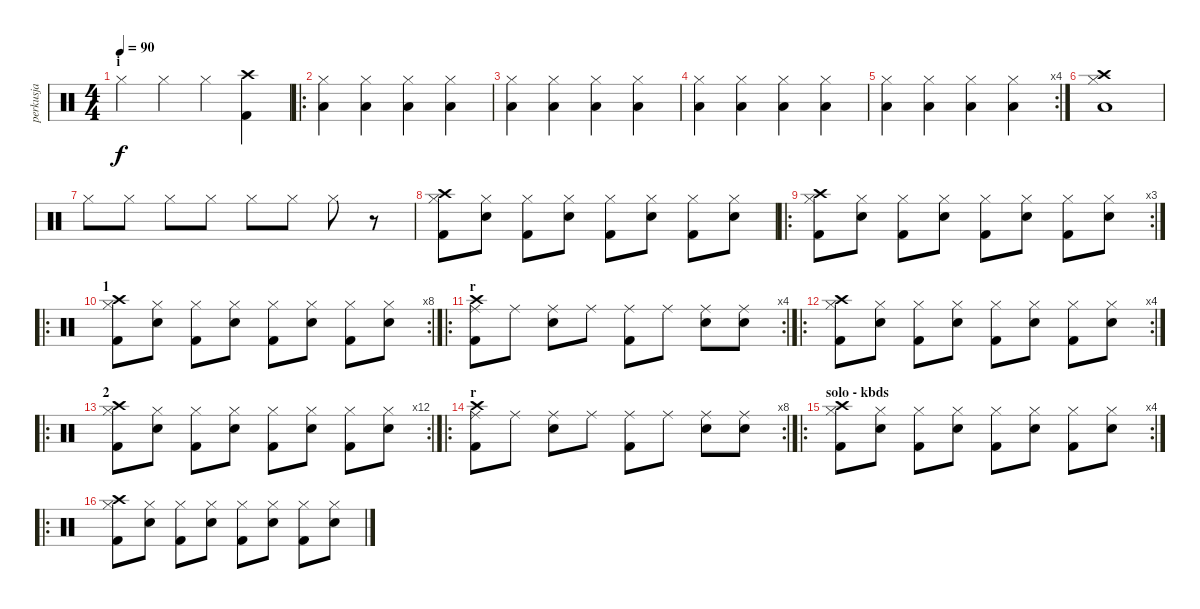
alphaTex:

\track ("perkusja" "perkusja") {instrument percussion}
\staff {score}
\articulation defaults
\ts (4 4)
\section ("" "i")
\tempo 90
\clef neutral
\ks c "Hi-Hat (closed)".4{dy f} "Hi-Hat (closed)".4 "Hi-Hat (closed)".4
("Crash high (hit)" "Kick (hit) 2").4 |
\ro
("Hi-Hat (closed)" "Low Tom (hit)").4 ("Hi-Hat (closed)" "Low Tom (hit)").4 ("Hi-Hat (closed)" "Low Tom (hit)").4 ("Hi-Hat (closed)" "Low Tom (hit)").4 |
("Hi-Hat (closed)" "Low Tom (hit)").4 ("Hi-Hat (closed)" "Low Tom (hit)").4 ("Hi-Hat (closed)" "Low Tom (hit)").4 ("Hi-Hat (closed)" "Low Tom (hit)").4 |
("Hi-Hat (closed)" "Low Tom (hit)").4 ("Hi-Hat (closed)" "Low Tom (hit)").4 ("Hi-Hat (closed)" "Low Tom (hit)").4 ("Hi-Hat (closed)" "Low Tom (hit)").4 |
\rc 4
("Hi-Hat (closed)" "Low Tom (hit)").4 ("Hi-Hat (closed)" "Low Tom (hit)").4 ("Hi-Hat (closed)" "Low Tom (hit)").4 ("Hi-Hat (closed)" "Low Tom (hit)").4 |
("Hi-Hat (closed)" "Low Tom (hit)" "Crash high (hit)").1 |
"Hi-Hat (closed)".8 "Hi-Hat (closed)".8 "Hi-Hat (closed)".8 "Hi-Hat (closed)".8 "Hi-Hat (closed)".8 "Hi-Hat (closed)".8 "Hi-Hat (closed)".8 r.8 |
("Hi-Hat (closed)" "Kick (hit) 2" "Crash high (hit)").8 ("Hi-Hat (closed)" "Electric Snare (hit)").8 ("Hi-Hat (closed)" "Kick (hit) 2").8 ("Hi-Hat (closed)" "Electric Snare (hit)").8 ("Hi-Hat (closed)" "Kick (hit) 2").8 ("Hi-Hat (closed)" "Electric Snare (hit)").8 ("Hi-Hat (closed)" "Kick (hit) 2").8 ("Hi-Hat (closed)" "Electric Snare (hit)").8 |
\ro
\rc 3
("Hi-Hat (closed)" "Kick (hit) 2" "Crash high (hit)").8 ("Hi-Hat (closed)" "Electric Snare (hit)").8 ("Hi-Hat (closed)" "Kick (hit) 2").8 ("Hi-Hat (closed)" "Electric Snare (hit)").8 ("Hi-Hat (closed)" "Kick (hit) 2").8 ("Hi-Hat (closed)" "Electric Snare (hit)").8 ("Hi-Hat (closed)" "Kick (hit) 2").8 ("Hi-Hat (closed)" "Electric Snare (hit)").8 |
\ro
\rc 8
\section ("" "1")
("Hi-Hat (closed)" "Kick (hit) 2" "Crash high (hit)").8 ("Hi-Hat (closed)" "Electric Snare (hit)").8 ("Hi-Hat (closed)" "Kick (hit) 2").8 ("Hi-Hat (closed)" "Electric Snare (hit)").8 ("Hi-Hat (closed)" "Kick (hit) 2").8 ("Hi-Hat (closed)" "Electric Snare (hit)").8 ("Hi-Hat (closed)" "Kick (hit) 2").8 ("Hi-Hat (closed)" "Electric Snare (hit)").8 |
\ro
\rc 4
\section ("" "r")
("Ride (middle)" "Kick (hit) 2" "Crash high (hit)").8 "Ride (middle)".8 ("Ride (middle)" "Electric Snare (hit)").8 "Ride (middle)".8 ("Ride (middle)" "Kick (hit) 2").8 "Ride (middle)".8 ("Ride (middle)" "Electric Snare (hit)").8 ("Ride (middle)" "Electric Snare (hit)").8 |
\ro
\rc 4
("Hi-Hat (closed)" "Kick (hit) 2" "Crash high (hit)").8 ("Hi-Hat (closed)" "Electric Snare (hit)").8 ("Hi-Hat (closed)" "Kick (hit) 2").8 ("Hi-Hat (closed)" "Electric Snare (hit)").8 ("Hi-Hat (closed)" "Kick (hit) 2").8 ("Hi-Hat (closed)" "Electric Snare (hit)").8 ("Hi-Hat (closed)" "Kick (hit) 2").8 ("Hi-Hat (closed)" "Electric Snare (hit)").8 |
\ro
\rc 12
\section ("" "2")
("Hi-Hat (closed)" "Kick (hit) 2" "Crash high (hit)").8 ("Hi-Hat (closed)" "Electric Snare (hit)").8 ("Hi-Hat (closed)" "Kick (hit) 2").8 ("Hi-Hat (closed)" "Electric Snare (hit)").8 ("Hi-Hat (closed)" "Kick (hit) 2").8 ("Hi-Hat (closed)" "Electric Snare (hit)").8 ("Hi-Hat (closed)" "Kick (hit) 2").8 ("Hi-Hat (closed)" "Electric Snare (hit)").8 |
\ro
\rc 8
\section ("" "r")
("Ride (middle)" "Kick (hit) 2" "Crash high (hit)").8 "Ride (middle)".8 ("Ride (middle)" "Electric Snare (hit)").8 "Ride (middle)".8 ("Ride (middle)" "Kick (hit) 2").8 "Ride (middle)".8 ("Ride (middle)" "Electric Snare (hit)").8 ("Ride (middle)" "Electric Snare (hit)").8 |
\ro
\rc 4
\section ("" "solo - kbds")
("Hi-Hat (closed)" "Kick (hit) 2" "Crash high (hit)").8 ("Hi-Hat (closed)" "Electric Snare (hit)").8 ("Hi-Hat (closed)" "Kick (hit) 2").8 ("Hi-Hat (closed)" "Electric Snare (hit)").8 ("Hi-Hat (closed)" "Kick (hit) 2").8 ("Hi-Hat (closed)" "Electric Snare (hit)").8 ("Hi-Hat (closed)" "Kick (hit) 2").8 ("Hi-Hat (closed)" "Electric Snare (hit)").8 |
\ro
("Hi-Hat (closed)" "Kick (hit) 2" "Crash high (hit)").8 ("Hi-Hat (closed)" "Electric Snare (hit)").8 ("Hi-Hat (closed)" "Kick (hit) 2").8 ("Hi-Hat (closed)" "Electric Snare (hit)").8 ("Hi-Hat (closed)" "Kick (hit) 2").8 ("Hi-Hat (closed)" "Electric Snare (hit)").8 ("Hi-Hat (closed)" "Kick (hit) 2").8 ("Hi-Hat (closed)" "Electric Snare (hit)").8
